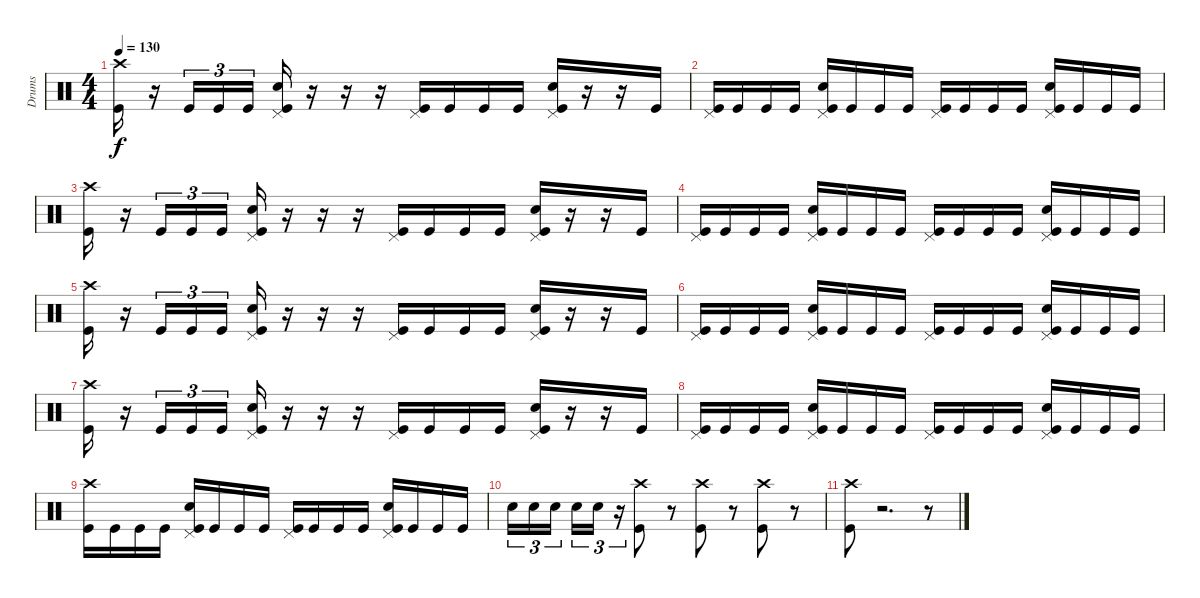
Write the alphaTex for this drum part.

\track ("Drums" "Drums") {instrument percussion}
\staff {score}
\articulation defaults
\ts (4 4)
\tempo 130
\clef neutral
\ks c
("Crash high (hit)" "Kick (hit)").16{dy f} r.16 "Kick (hit)".16{tu (3 2)} "Kick (hit)".16{tu (3 2)} "Kick (hit)".16{tu (3 2)} ("Pedal Hi-Hat (hit)" "Snare (hit) 2" "Kick (hit)").16 r.16 r.16 r.16 ("Pedal Hi-Hat (hit)" "Kick (hit)").16 "Kick (hit)".16 "Kick (hit)".16 "Kick (hit)".16 ("Pedal Hi-Hat (hit)" "Snare (hit) 2" "Kick (hit)").16 r.16 r.16 "Kick (hit)".16 |
("Pedal Hi-Hat (hit)" "Kick (hit)").16 "Kick (hit)".16 "Kick (hit)".16 "Kick (hit)".16 ("Pedal Hi-Hat (hit)" "Snare (hit) 2" "Kick (hit)").16 "Kick (hit)".16 "Kick (hit)".16 "Kick (hit)".16 ("Pedal Hi-Hat (hit)" "Kick (hit)").16 "Kick (hit)".16 "Kick (hit)".16 "Kick (hit)".16 ("Pedal Hi-Hat (hit)" "Snare (hit) 2" "Kick (hit)").16 "Kick (hit)".16 "Kick (hit)".16 "Kick (hit)".16 |
("Crash high (hit)" "Kick (hit)").16 r.16 "Kick (hit)".16{tu (3 2)} "Kick (hit)".16{tu (3 2)} "Kick (hit)".16{tu (3 2)} ("Pedal Hi-Hat (hit)" "Snare (hit) 2" "Kick (hit)").16 r.16 r.16 r.16 ("Pedal Hi-Hat (hit)" "Kick (hit)").16 "Kick (hit)".16 "Kick (hit)".16 "Kick (hit)".16 ("Pedal Hi-Hat (hit)" "Snare (hit) 2" "Kick (hit)").16 r.16 r.16 "Kick (hit)".16 |
("Pedal Hi-Hat (hit)" "Kick (hit)").16 "Kick (hit)".16 "Kick (hit)".16 "Kick (hit)".16 ("Pedal Hi-Hat (hit)" "Snare (hit) 2" "Kick (hit)").16 "Kick (hit)".16 "Kick (hit)".16 "Kick (hit)".16 ("Pedal Hi-Hat (hit)" "Kick (hit)").16 "Kick (hit)".16 "Kick (hit)".16 "Kick (hit)".16 ("Pedal Hi-Hat (hit)" "Snare (hit) 2" "Kick (hit)").16 "Kick (hit)".16 "Kick (hit)".16 "Kick (hit)".16 |
("Crash high (hit)" "Kick (hit)").16 r.16 "Kick (hit)".16{tu (3 2)} "Kick (hit)".16{tu (3 2)} "Kick (hit)".16{tu (3 2)} ("Pedal Hi-Hat (hit)" "Snare (hit) 2" "Kick (hit)").16 r.16 r.16 r.16 ("Pedal Hi-Hat (hit)" "Kick (hit)").16 "Kick (hit)".16 "Kick (hit)".16 "Kick (hit)".16 ("Pedal Hi-Hat (hit)" "Snare (hit) 2" "Kick (hit)").16 r.16 r.16 "Kick (hit)".16 |
("Pedal Hi-Hat (hit)" "Kick (hit)").16 "Kick (hit)".16 "Kick (hit)".16 "Kick (hit)".16 ("Pedal Hi-Hat (hit)" "Snare (hit) 2" "Kick (hit)").16 "Kick (hit)".16 "Kick (hit)".16 "Kick (hit)".16 ("Pedal Hi-Hat (hit)" "Kick (hit)").16 "Kick (hit)".16 "Kick (hit)".16 "Kick (hit)".16 ("Pedal Hi-Hat (hit)" "Snare (hit) 2" "Kick (hit)").16 "Kick (hit)".16 "Kick (hit)".16 "Kick (hit)".16 |
("Crash high (hit)" "Kick (hit)").16 r.16 "Kick (hit)".16{tu (3 2)} "Kick (hit)".16{tu (3 2)} "Kick (hit)".16{tu (3 2)} ("Pedal Hi-Hat (hit)" "Snare (hit) 2" "Kick (hit)").16 r.16 r.16 r.16 ("Pedal Hi-Hat (hit)" "Kick (hit)").16 "Kick (hit)".16 "Kick (hit)".16 "Kick (hit)".16 ("Pedal Hi-Hat (hit)" "Snare (hit) 2" "Kick (hit)").16 r.16 r.16 "Kick (hit)".16 |
("Pedal Hi-Hat (hit)" "Kick (hit)").16 "Kick (hit)".16 "Kick (hit)".16 "Kick (hit)".16 ("Pedal Hi-Hat (hit)" "Snare (hit) 2" "Kick (hit)").16 "Kick (hit)".16 "Kick (hit)".16 "Kick (hit)".16 ("Pedal Hi-Hat (hit)" "Kick (hit)").16 "Kick (hit)".16 "Kick (hit)".16 "Kick (hit)".16 ("Pedal Hi-Hat (hit)" "Snare (hit) 2" "Kick (hit)").16 "Kick (hit)".16 "Kick (hit)".16 "Kick (hit)".16 |
("Crash high (hit)" "Kick (hit)").16 "Kick (hit)".16 "Kick (hit)".16 "Kick (hit)".16 ("Pedal Hi-Hat (hit)" "Snare (hit) 2" "Kick (hit)").16 "Kick (hit)".16 "Kick (hit)".16 "Kick (hit)".16 ("Pedal Hi-Hat (hit)" "Kick (hit)").16 "Kick (hit)".16 "Kick (hit)".16 "Kick (hit)".16 ("Pedal Hi-Hat (hit)" "Snare (hit) 2" "Kick (hit)").16 "Kick (hit)".16 "Kick (hit)".16 "Kick (hit)".16 |
"Snare (hit) 2".16{tu (3 2)} "Snare (hit) 2".16{tu (3 2)} "Snare (hit) 2".16{tu (3 2)} "Snare (hit) 2".16{tu (3 2)} "Snare (hit) 2".16{tu (3 2)} r.16{tu (3 2)} ("Crash high (hit)" "Kick (hit)").8 r.8{volume 0} ("Crash high (hit)" "Kick (hit)").8{volume 16} r.8{volume 0} ("Crash high (hit)" "Kick (hit)").8{volume 16} r.8{volume 0} |
("Crash high (hit)" "Kick (hit)").8{volume 16} r.2{d volume 0} r.8
